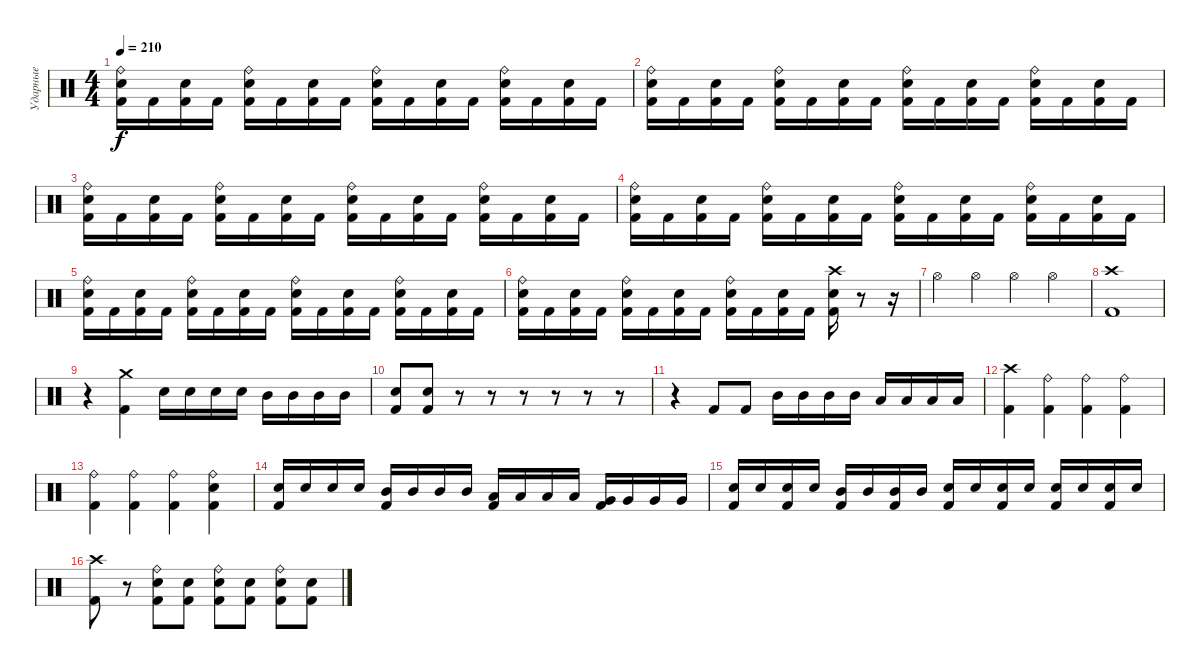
\track ("Ударные" "Ударные") {instrument percussion}
\staff {score}
\articulation defaults
\ts (4 4)
\tempo 210
\clef neutral
\ks c
("Ride (bell)" "Electric Snare (hit)" "Kick (hit) 2").16{dy f} "Kick (hit) 2".16 ("Electric Snare (hit)" "Kick (hit) 2").16 "Kick (hit) 2".16 ("Ride (bell)" "Electric Snare (hit)" "Kick (hit) 2").16 "Kick (hit) 2".16 ("Electric Snare (hit)" "Kick (hit) 2").16 "Kick (hit) 2".16 ("Ride (bell)" "Electric Snare (hit)" "Kick (hit) 2").16 "Kick (hit) 2".16 ("Electric Snare (hit)" "Kick (hit) 2").16 "Kick (hit) 2".16 ("Ride (bell)" "Electric Snare (hit)" "Kick (hit) 2").16 "Kick (hit) 2".16 ("Electric Snare (hit)" "Kick (hit) 2").16 "Kick (hit) 2".16 |
("Ride (bell)" "Electric Snare (hit)" "Kick (hit) 2").16 "Kick (hit) 2".16 ("Electric Snare (hit)" "Kick (hit) 2").16 "Kick (hit) 2".16 ("Ride (bell)" "Electric Snare (hit)" "Kick (hit) 2").16 "Kick (hit) 2".16 ("Electric Snare (hit)" "Kick (hit) 2").16 "Kick (hit) 2".16 ("Ride (bell)" "Electric Snare (hit)" "Kick (hit) 2").16 "Kick (hit) 2".16 ("Electric Snare (hit)" "Kick (hit) 2").16 "Kick (hit) 2".16 ("Ride (bell)" "Electric Snare (hit)" "Kick (hit) 2").16 "Kick (hit) 2".16 ("Electric Snare (hit)" "Kick (hit) 2").16 "Kick (hit) 2".16 |
("Ride (bell)" "Electric Snare (hit)" "Kick (hit) 2").16 "Kick (hit) 2".16 ("Electric Snare (hit)" "Kick (hit) 2").16 "Kick (hit) 2".16 ("Ride (bell)" "Electric Snare (hit)" "Kick (hit) 2").16 "Kick (hit) 2".16 ("Electric Snare (hit)" "Kick (hit) 2").16 "Kick (hit) 2".16 ("Ride (bell)" "Electric Snare (hit)" "Kick (hit) 2").16 "Kick (hit) 2".16 ("Electric Snare (hit)" "Kick (hit) 2").16 "Kick (hit) 2".16 ("Ride (bell)" "Electric Snare (hit)" "Kick (hit) 2").16 "Kick (hit) 2".16 ("Electric Snare (hit)" "Kick (hit) 2").16 "Kick (hit) 2".16 |
("Ride (bell)" "Electric Snare (hit)" "Kick (hit) 2").16 "Kick (hit) 2".16 ("Electric Snare (hit)" "Kick (hit) 2").16 "Kick (hit) 2".16 ("Ride (bell)" "Electric Snare (hit)" "Kick (hit) 2").16 "Kick (hit) 2".16 ("Electric Snare (hit)" "Kick (hit) 2").16 "Kick (hit) 2".16 ("Ride (bell)" "Electric Snare (hit)" "Kick (hit) 2").16 "Kick (hit) 2".16 ("Electric Snare (hit)" "Kick (hit) 2").16 "Kick (hit) 2".16 ("Ride (bell)" "Electric Snare (hit)" "Kick (hit) 2").16 "Kick (hit) 2".16 ("Electric Snare (hit)" "Kick (hit) 2").16 "Kick (hit) 2".16 |
("Ride (bell)" "Electric Snare (hit)" "Kick (hit) 2").16 "Kick (hit) 2".16 ("Electric Snare (hit)" "Kick (hit) 2").16 "Kick (hit) 2".16 ("Ride (bell)" "Electric Snare (hit)" "Kick (hit) 2").16 "Kick (hit) 2".16 ("Electric Snare (hit)" "Kick (hit) 2").16 "Kick (hit) 2".16 ("Ride (bell)" "Electric Snare (hit)" "Kick (hit) 2").16 "Kick (hit) 2".16 ("Electric Snare (hit)" "Kick (hit) 2").16 "Kick (hit) 2".16 ("Ride (bell)" "Electric Snare (hit)" "Kick (hit) 2").16 "Kick (hit) 2".16 ("Electric Snare (hit)" "Kick (hit) 2").16 "Kick (hit) 2".16 |
("Ride (bell)" "Electric Snare (hit)" "Kick (hit) 2").16 "Kick (hit) 2".16 ("Electric Snare (hit)" "Kick (hit) 2").16 "Kick (hit) 2".16 ("Ride (bell)" "Electric Snare (hit)" "Kick (hit) 2").16 "Kick (hit) 2".16 ("Electric Snare (hit)" "Kick (hit) 2").16 "Kick (hit) 2".16 ("Ride (bell)" "Electric Snare (hit)" "Kick (hit) 2").16 "Kick (hit) 2".16 ("Electric Snare (hit)" "Kick (hit) 2").16 "Kick (hit) 2".16 ("Crash high (hit)" "Electric Snare (hit)" "Kick (hit) 2").16 r.8 r.16 |
"Hi-Hat (open)".4 "Hi-Hat (open)".4 "Hi-Hat (open)".4 "Hi-Hat (open)".4 |
("Crash high (hit)" "Kick (hit) 2").1 |
r.4 ("Crash medium (hit)" "Kick (hit) 2").4 "Electric Snare (hit)".16 "Electric Snare (hit)".16 "Electric Snare (hit)".16 "Electric Snare (hit)".16 "Mid Tom (hit)".16 "Mid Tom (hit)".16 "Mid Tom (hit)".16 "Mid Tom (hit)".16 |
("Kick (hit) 2" "Electric Snare (hit)").8 ("Kick (hit) 2" "Electric Snare (hit)").8 r.8 r.8 r.8 r.8 r.8 r.8 |
r.4 "Kick (hit) 2".8 "Kick (hit) 2".8 "Mid Tom (hit)".16 "Mid Tom (hit)".16 "Mid Tom (hit)".16 "Mid Tom (hit)".16 "Low Tom (hit)".16 "Low Tom (hit)".16 "Low Tom (hit)".16 "Low Tom (hit)".16 |
("Crash high (hit)" "Kick (hit) 2").4 ("Ride (bell)" "Kick (hit) 2").4 ("Ride (bell)" "Kick (hit) 2").4 ("Ride (bell)" "Kick (hit) 2").4 |
("Ride (bell)" "Kick (hit) 2").4 ("Ride (bell)" "Kick (hit) 2").4 ("Ride (bell)" "Kick (hit) 2").4 ("Ride (bell)" "Electric Snare (hit)" "Kick (hit) 2").4 |
("Electric Snare (hit)" "Kick (hit) 2").16 "Electric Snare (hit)".16 "Electric Snare (hit)".16 "Electric Snare (hit)".16 ("Mid Tom (hit)" "Kick (hit) 2").16 "Mid Tom (hit)".16 "Mid Tom (hit)".16 "Mid Tom (hit)".16 ("Low Tom (hit)" "Kick (hit) 2").16 "Low Tom (hit)".16 "Low Tom (hit)".16 "Low Tom (hit)".16 ("Very Low Tom (hit)" "Kick (hit) 2").16 "Very Low Tom (hit)".16 "Very Low Tom (hit)".16 "Very Low Tom (hit)".16 |
("Electric Snare (hit)" "Kick (hit) 2").16 "Electric Snare (hit)".16 ("Electric Snare (hit)" "Kick (hit) 2").16 "Electric Snare (hit)".16 ("Mid Tom (hit)" "Kick (hit) 2").16 "Mid Tom (hit)".16 ("Mid Tom (hit)" "Kick (hit) 2").16 "Mid Tom (hit)".16 ("Electric Snare (hit)" "Kick (hit) 2").16 "Electric Snare (hit)".16 ("Electric Snare (hit)" "Kick (hit) 2").16 "Electric Snare (hit)".16 ("Electric Snare (hit)" "Kick (hit) 2").16 "Electric Snare (hit)".16 ("Electric Snare (hit)" "Kick (hit) 2").16 "Electric Snare (hit)".16 |
("Crash high (hit)" "Kick (hit) 2").8 r.8 ("Ride (bell)" "Electric Snare (hit)" "Kick (hit) 2").8 ("Electric Snare (hit)" "Kick (hit) 2").8 ("Ride (bell)" "Electric Snare (hit)" "Kick (hit) 2").8 ("Electric Snare (hit)" "Kick (hit) 2").8 ("Ride (bell)" "Electric Snare (hit)" "Kick (hit) 2").8 ("Electric Snare (hit)" "Kick (hit) 2").8
